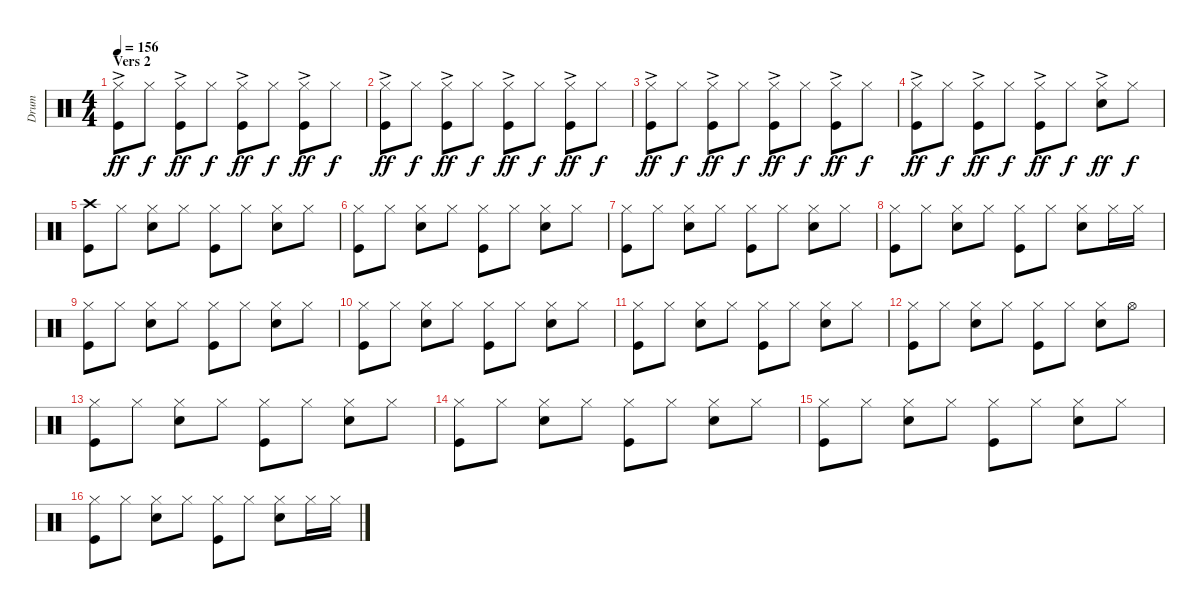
\track ("Drum" "Drum") {instrument percussion}
\staff {score}
\articulation defaults
\ts (4 4)
\section ("" "Vers 2")
\tempo 156
\clef neutral
\ks c
("Hi-Hat (closed)"{ac} "Kick (hit)").8{dy ff} "Hi-Hat (closed)".8{dy f} ("Hi-Hat (closed)"{ac} "Kick (hit)").8{dy ff} "Hi-Hat (closed)".8{dy f} ("Hi-Hat (closed)"{ac} "Kick (hit)").8{dy ff} "Hi-Hat (closed)".8{dy f} ("Hi-Hat (closed)"{ac} "Kick (hit)").8{dy ff} "Hi-Hat (closed)".8{dy f} |
("Hi-Hat (closed)"{ac} "Kick (hit)").8{dy ff} "Hi-Hat (closed)".8{dy f} ("Hi-Hat (closed)"{ac} "Kick (hit)").8{dy ff} "Hi-Hat (closed)".8{dy f} ("Hi-Hat (closed)"{ac} "Kick (hit)").8{dy ff} "Hi-Hat (closed)".8{dy f} ("Hi-Hat (closed)"{ac} "Kick (hit)").8{dy ff} "Hi-Hat (closed)".8{dy f} |
("Hi-Hat (closed)"{ac} "Kick (hit)").8{dy ff} "Hi-Hat (closed)".8{dy f} ("Hi-Hat (closed)"{ac} "Kick (hit)").8{dy ff} "Hi-Hat (closed)".8{dy f} ("Hi-Hat (closed)"{ac} "Kick (hit)").8{dy ff} "Hi-Hat (closed)".8{dy f} ("Hi-Hat (closed)"{ac} "Kick (hit)").8{dy ff} "Hi-Hat (closed)".8{dy f} |
("Hi-Hat (closed)"{ac} "Kick (hit)").8{dy ff} "Hi-Hat (closed)".8{dy f} ("Hi-Hat (closed)"{ac} "Kick (hit)").8{dy ff} "Hi-Hat (closed)".8{dy f} ("Hi-Hat (closed)"{ac} "Kick (hit)").8{dy ff} "Hi-Hat (closed)".8{dy f} ("Hi-Hat (closed)"{ac} "Snare (hit) 2").8{dy ff} "Hi-Hat (closed)".8{dy f} |
("Crash high (hit)" "Kick (hit)").8 "Hi-Hat (closed)".8 ("Hi-Hat (closed)" "Snare (hit) 2").8 "Hi-Hat (closed)".8 ("Hi-Hat (closed)" "Kick (hit)").8 "Hi-Hat (closed)".8 ("Hi-Hat (closed)" "Snare (hit) 2").8 "Hi-Hat (closed)".8 |
("Hi-Hat (closed)" "Kick (hit)").8 "Hi-Hat (closed)".8 ("Hi-Hat (closed)" "Snare (hit) 2").8 "Hi-Hat (closed)".8 ("Hi-Hat (closed)" "Kick (hit)").8 "Hi-Hat (closed)".8 ("Hi-Hat (closed)" "Snare (hit) 2").8 "Hi-Hat (closed)".8 |
("Hi-Hat (closed)" "Kick (hit)").8 "Hi-Hat (closed)".8 ("Hi-Hat (closed)" "Snare (hit) 2").8 "Hi-Hat (closed)".8 ("Hi-Hat (closed)" "Kick (hit)").8 "Hi-Hat (closed)".8 ("Hi-Hat (closed)" "Snare (hit) 2").8 "Hi-Hat (closed)".8 |
("Hi-Hat (closed)" "Kick (hit)").8 "Hi-Hat (closed)".8 ("Hi-Hat (closed)" "Snare (hit) 2").8 "Hi-Hat (closed)".8 ("Hi-Hat (closed)" "Kick (hit)").8 "Hi-Hat (closed)".8 ("Hi-Hat (closed)" "Snare (hit) 2").8 "Hi-Hat (closed)".16 "Hi-Hat (closed)".16 |
("Hi-Hat (closed)" "Kick (hit)").8 "Hi-Hat (closed)".8 ("Hi-Hat (closed)" "Snare (hit) 2").8 "Hi-Hat (closed)".8 ("Hi-Hat (closed)" "Kick (hit)").8 "Hi-Hat (closed)".8 ("Hi-Hat (closed)" "Snare (hit) 2").8 "Hi-Hat (closed)".8 |
("Hi-Hat (closed)" "Kick (hit)").8 "Hi-Hat (closed)".8 ("Hi-Hat (closed)" "Snare (hit) 2").8 "Hi-Hat (closed)".8 ("Hi-Hat (closed)" "Kick (hit)").8 "Hi-Hat (closed)".8 ("Hi-Hat (closed)" "Snare (hit) 2").8 "Hi-Hat (closed)".8 |
("Hi-Hat (closed)" "Kick (hit)").8 "Hi-Hat (closed)".8 ("Hi-Hat (closed)" "Snare (hit) 2").8 "Hi-Hat (closed)".8 ("Hi-Hat (closed)" "Kick (hit)").8 "Hi-Hat (closed)".8 ("Hi-Hat (closed)" "Snare (hit) 2").8 "Hi-Hat (closed)".8 |
("Hi-Hat (closed)" "Kick (hit)").8 "Hi-Hat (closed)".8 ("Hi-Hat (closed)" "Snare (hit) 2").8 "Hi-Hat (closed)".8 ("Hi-Hat (closed)" "Kick (hit)").8 "Hi-Hat (closed)".8 ("Hi-Hat (closed)" "Snare (hit) 2").8 "Hi-Hat (open)".8 |
("Hi-Hat (closed)" "Kick (hit)").8 "Hi-Hat (closed)".8 ("Hi-Hat (closed)" "Snare (hit) 2").8 "Hi-Hat (closed)".8 ("Hi-Hat (closed)" "Kick (hit)").8 "Hi-Hat (closed)".8 ("Hi-Hat (closed)" "Snare (hit) 2").8 "Hi-Hat (closed)".8 |
("Hi-Hat (closed)" "Kick (hit)").8 "Hi-Hat (closed)".8 ("Hi-Hat (closed)" "Snare (hit) 2").8 "Hi-Hat (closed)".8 ("Hi-Hat (closed)" "Kick (hit)").8 "Hi-Hat (closed)".8 ("Hi-Hat (closed)" "Snare (hit) 2").8 "Hi-Hat (closed)".8 |
("Hi-Hat (closed)" "Kick (hit)").8 "Hi-Hat (closed)".8 ("Hi-Hat (closed)" "Snare (hit) 2").8 "Hi-Hat (closed)".8 ("Hi-Hat (closed)" "Kick (hit)").8 "Hi-Hat (closed)".8 ("Hi-Hat (closed)" "Snare (hit) 2").8 "Hi-Hat (closed)".8 |
("Hi-Hat (closed)" "Kick (hit)").8 "Hi-Hat (closed)".8 ("Hi-Hat (closed)" "Snare (hit) 2").8 "Hi-Hat (closed)".8 ("Hi-Hat (closed)" "Kick (hit)").8 "Hi-Hat (closed)".8 ("Hi-Hat (closed)" "Snare (hit) 2").8 "Hi-Hat (closed)".16 "Hi-Hat (closed)".16
